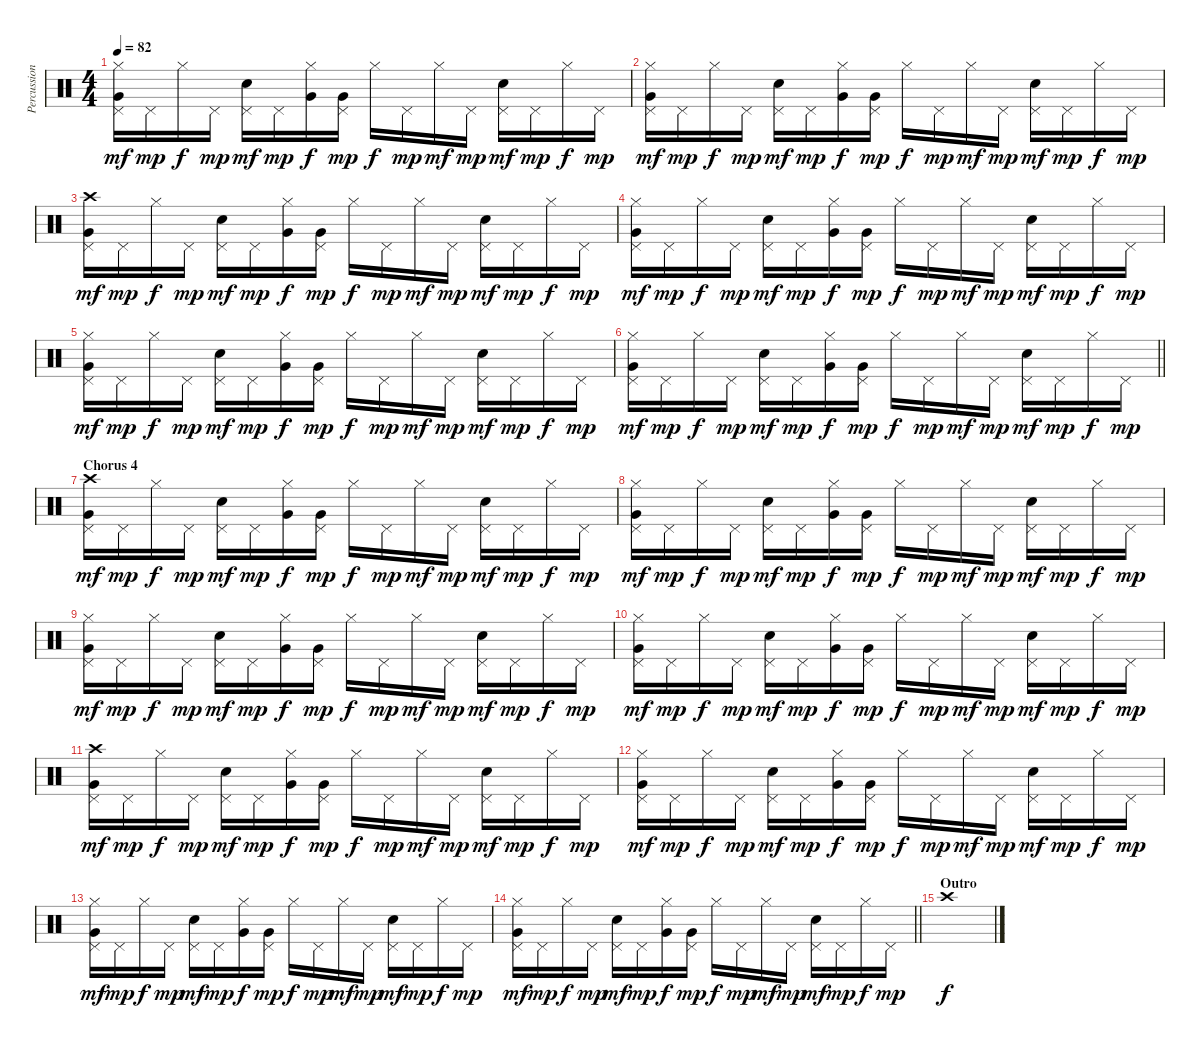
\track ("Percussion" "Percussion") {instrument percussion}
\staff {score}
\articulation defaults
\ts (4 4)
\tempo 82
\clef neutral
\ks c
("Hi-Hat (closed)" "Very Low Tom (hit)" "Pedal Hi-Hat (hit)").16{dy mf} "Pedal Hi-Hat (hit)".16{dy mp} "Hi-Hat (closed)".16{dy f} "Pedal Hi-Hat (hit)".16{dy mp} ("Electric Snare (hit)" "Pedal Hi-Hat (hit)").16{dy mf} "Pedal Hi-Hat (hit)".16{dy mp} ("Hi-Hat (closed)" "Very Low Tom (hit)").16{dy f} ("Very Low Tom (hit)" "Pedal Hi-Hat (hit)").16{dy mp} "Hi-Hat (closed)".16{dy f} "Pedal Hi-Hat (hit)".16{dy mp} "Hi-Hat (closed)".16{dy mf} "Pedal Hi-Hat (hit)".16{dy mp} ("Electric Snare (hit)" "Pedal Hi-Hat (hit)").16{dy mf} "Pedal Hi-Hat (hit)".16{dy mp} "Hi-Hat (closed)".16{dy f} "Pedal Hi-Hat (hit)".16{dy mp} |
("Hi-Hat (closed)" "Very Low Tom (hit)" "Pedal Hi-Hat (hit)").16{dy mf} "Pedal Hi-Hat (hit)".16{dy mp} "Hi-Hat (closed)".16{dy f} "Pedal Hi-Hat (hit)".16{dy mp} ("Electric Snare (hit)" "Pedal Hi-Hat (hit)").16{dy mf} "Pedal Hi-Hat (hit)".16{dy mp} ("Hi-Hat (closed)" "Very Low Tom (hit)").16{dy f} ("Very Low Tom (hit)" "Pedal Hi-Hat (hit)").16{dy mp} "Hi-Hat (closed)".16{dy f} "Pedal Hi-Hat (hit)".16{dy mp} "Hi-Hat (closed)".16{dy mf} "Pedal Hi-Hat (hit)".16{dy mp} ("Electric Snare (hit)" "Pedal Hi-Hat (hit)").16{dy mf} "Pedal Hi-Hat (hit)".16{dy mp} "Hi-Hat (closed)".16{dy f} "Pedal Hi-Hat (hit)".16{dy mp} |
("Crash high (hit)" "Very Low Tom (hit)" "Pedal Hi-Hat (hit)").16{dy mf} "Pedal Hi-Hat (hit)".16{dy mp} "Hi-Hat (closed)".16{dy f} "Pedal Hi-Hat (hit)".16{dy mp} ("Electric Snare (hit)" "Pedal Hi-Hat (hit)").16{dy mf} "Pedal Hi-Hat (hit)".16{dy mp} ("Hi-Hat (closed)" "Very Low Tom (hit)").16{dy f} ("Very Low Tom (hit)" "Pedal Hi-Hat (hit)").16{dy mp} "Hi-Hat (closed)".16{dy f} "Pedal Hi-Hat (hit)".16{dy mp} "Hi-Hat (closed)".16{dy mf} "Pedal Hi-Hat (hit)".16{dy mp} ("Electric Snare (hit)" "Pedal Hi-Hat (hit)").16{dy mf} "Pedal Hi-Hat (hit)".16{dy mp} "Hi-Hat (closed)".16{dy f} "Pedal Hi-Hat (hit)".16{dy mp} |
("Hi-Hat (closed)" "Very Low Tom (hit)" "Pedal Hi-Hat (hit)").16{dy mf} "Pedal Hi-Hat (hit)".16{dy mp} "Hi-Hat (closed)".16{dy f} "Pedal Hi-Hat (hit)".16{dy mp} ("Electric Snare (hit)" "Pedal Hi-Hat (hit)").16{dy mf} "Pedal Hi-Hat (hit)".16{dy mp} ("Hi-Hat (closed)" "Very Low Tom (hit)").16{dy f} ("Very Low Tom (hit)" "Pedal Hi-Hat (hit)").16{dy mp} "Hi-Hat (closed)".16{dy f} "Pedal Hi-Hat (hit)".16{dy mp} "Hi-Hat (closed)".16{dy mf} "Pedal Hi-Hat (hit)".16{dy mp} ("Electric Snare (hit)" "Pedal Hi-Hat (hit)").16{dy mf} "Pedal Hi-Hat (hit)".16{dy mp} "Hi-Hat (closed)".16{dy f} "Pedal Hi-Hat (hit)".16{dy mp} |
("Hi-Hat (closed)" "Very Low Tom (hit)" "Pedal Hi-Hat (hit)").16{dy mf} "Pedal Hi-Hat (hit)".16{dy mp} "Hi-Hat (closed)".16{dy f} "Pedal Hi-Hat (hit)".16{dy mp} ("Electric Snare (hit)" "Pedal Hi-Hat (hit)").16{dy mf} "Pedal Hi-Hat (hit)".16{dy mp} ("Hi-Hat (closed)" "Very Low Tom (hit)").16{dy f} ("Very Low Tom (hit)" "Pedal Hi-Hat (hit)").16{dy mp} "Hi-Hat (closed)".16{dy f} "Pedal Hi-Hat (hit)".16{dy mp} "Hi-Hat (closed)".16{dy mf} "Pedal Hi-Hat (hit)".16{dy mp} ("Electric Snare (hit)" "Pedal Hi-Hat (hit)").16{dy mf} "Pedal Hi-Hat (hit)".16{dy mp} "Hi-Hat (closed)".16{dy f} "Pedal Hi-Hat (hit)".16{dy mp} |
\barLineRight lightlight
("Hi-Hat (closed)" "Very Low Tom (hit)" "Pedal Hi-Hat (hit)").16{dy mf} "Pedal Hi-Hat (hit)".16{dy mp} "Hi-Hat (closed)".16{dy f} "Pedal Hi-Hat (hit)".16{dy mp} ("Electric Snare (hit)" "Pedal Hi-Hat (hit)").16{dy mf} "Pedal Hi-Hat (hit)".16{dy mp} ("Hi-Hat (closed)" "Very Low Tom (hit)").16{dy f} ("Very Low Tom (hit)" "Pedal Hi-Hat (hit)").16{dy mp} "Hi-Hat (closed)".16{dy f} "Pedal Hi-Hat (hit)".16{dy mp} "Hi-Hat (closed)".16{dy mf} "Pedal Hi-Hat (hit)".16{dy mp} ("Electric Snare (hit)" "Pedal Hi-Hat (hit)").16{dy mf} "Pedal Hi-Hat (hit)".16{dy mp} "Hi-Hat (closed)".16{dy f} "Pedal Hi-Hat (hit)".16{dy mp} |
\section ("" "Chorus 4")
("Crash high (hit)" "Very Low Tom (hit)" "Pedal Hi-Hat (hit)").16{dy mf} "Pedal Hi-Hat (hit)".16{dy mp} "Hi-Hat (closed)".16{dy f} "Pedal Hi-Hat (hit)".16{dy mp} ("Electric Snare (hit)" "Pedal Hi-Hat (hit)").16{dy mf} "Pedal Hi-Hat (hit)".16{dy mp} ("Hi-Hat (closed)" "Very Low Tom (hit)").16{dy f} ("Very Low Tom (hit)" "Pedal Hi-Hat (hit)").16{dy mp} "Hi-Hat (closed)".16{dy f} "Pedal Hi-Hat (hit)".16{dy mp} "Hi-Hat (closed)".16{dy mf} "Pedal Hi-Hat (hit)".16{dy mp} ("Electric Snare (hit)" "Pedal Hi-Hat (hit)").16{dy mf} "Pedal Hi-Hat (hit)".16{dy mp} "Hi-Hat (closed)".16{dy f} "Pedal Hi-Hat (hit)".16{dy mp} |
("Hi-Hat (closed)" "Very Low Tom (hit)" "Pedal Hi-Hat (hit)").16{dy mf} "Pedal Hi-Hat (hit)".16{dy mp} "Hi-Hat (closed)".16{dy f} "Pedal Hi-Hat (hit)".16{dy mp} ("Electric Snare (hit)" "Pedal Hi-Hat (hit)").16{dy mf} "Pedal Hi-Hat (hit)".16{dy mp} ("Hi-Hat (closed)" "Very Low Tom (hit)").16{dy f} ("Very Low Tom (hit)" "Pedal Hi-Hat (hit)").16{dy mp} "Hi-Hat (closed)".16{dy f} "Pedal Hi-Hat (hit)".16{dy mp} "Hi-Hat (closed)".16{dy mf} "Pedal Hi-Hat (hit)".16{dy mp} ("Electric Snare (hit)" "Pedal Hi-Hat (hit)").16{dy mf} "Pedal Hi-Hat (hit)".16{dy mp} "Hi-Hat (closed)".16{dy f} "Pedal Hi-Hat (hit)".16{dy mp} |
("Hi-Hat (closed)" "Very Low Tom (hit)" "Pedal Hi-Hat (hit)").16{dy mf} "Pedal Hi-Hat (hit)".16{dy mp} "Hi-Hat (closed)".16{dy f} "Pedal Hi-Hat (hit)".16{dy mp} ("Electric Snare (hit)" "Pedal Hi-Hat (hit)").16{dy mf} "Pedal Hi-Hat (hit)".16{dy mp} ("Hi-Hat (closed)" "Very Low Tom (hit)").16{dy f} ("Very Low Tom (hit)" "Pedal Hi-Hat (hit)").16{dy mp} "Hi-Hat (closed)".16{dy f} "Pedal Hi-Hat (hit)".16{dy mp} "Hi-Hat (closed)".16{dy mf} "Pedal Hi-Hat (hit)".16{dy mp} ("Electric Snare (hit)" "Pedal Hi-Hat (hit)").16{dy mf} "Pedal Hi-Hat (hit)".16{dy mp} "Hi-Hat (closed)".16{dy f} "Pedal Hi-Hat (hit)".16{dy mp} |
("Hi-Hat (closed)" "Very Low Tom (hit)" "Pedal Hi-Hat (hit)").16{dy mf} "Pedal Hi-Hat (hit)".16{dy mp} "Hi-Hat (closed)".16{dy f} "Pedal Hi-Hat (hit)".16{dy mp} ("Electric Snare (hit)" "Pedal Hi-Hat (hit)").16{dy mf} "Pedal Hi-Hat (hit)".16{dy mp} ("Hi-Hat (closed)" "Very Low Tom (hit)").16{dy f} ("Very Low Tom (hit)" "Pedal Hi-Hat (hit)").16{dy mp} "Hi-Hat (closed)".16{dy f} "Pedal Hi-Hat (hit)".16{dy mp} "Hi-Hat (closed)".16{dy mf} "Pedal Hi-Hat (hit)".16{dy mp} ("Electric Snare (hit)" "Pedal Hi-Hat (hit)").16{dy mf} "Pedal Hi-Hat (hit)".16{dy mp} "Hi-Hat (closed)".16{dy f} "Pedal Hi-Hat (hit)".16{dy mp} |
("Crash high (hit)" "Very Low Tom (hit)" "Pedal Hi-Hat (hit)").16{dy mf} "Pedal Hi-Hat (hit)".16{dy mp} "Hi-Hat (closed)".16{dy f} "Pedal Hi-Hat (hit)".16{dy mp} ("Electric Snare (hit)" "Pedal Hi-Hat (hit)").16{dy mf} "Pedal Hi-Hat (hit)".16{dy mp} ("Hi-Hat (closed)" "Very Low Tom (hit)").16{dy f} ("Very Low Tom (hit)" "Pedal Hi-Hat (hit)").16{dy mp} "Hi-Hat (closed)".16{dy f} "Pedal Hi-Hat (hit)".16{dy mp} "Hi-Hat (closed)".16{dy mf} "Pedal Hi-Hat (hit)".16{dy mp} ("Electric Snare (hit)" "Pedal Hi-Hat (hit)").16{dy mf} "Pedal Hi-Hat (hit)".16{dy mp} "Hi-Hat (closed)".16{dy f} "Pedal Hi-Hat (hit)".16{dy mp} |
("Hi-Hat (closed)" "Very Low Tom (hit)" "Pedal Hi-Hat (hit)").16{dy mf} "Pedal Hi-Hat (hit)".16{dy mp} "Hi-Hat (closed)".16{dy f} "Pedal Hi-Hat (hit)".16{dy mp} ("Electric Snare (hit)" "Pedal Hi-Hat (hit)").16{dy mf} "Pedal Hi-Hat (hit)".16{dy mp} ("Hi-Hat (closed)" "Very Low Tom (hit)").16{dy f} ("Very Low Tom (hit)" "Pedal Hi-Hat (hit)").16{dy mp} "Hi-Hat (closed)".16{dy f} "Pedal Hi-Hat (hit)".16{dy mp} "Hi-Hat (closed)".16{dy mf} "Pedal Hi-Hat (hit)".16{dy mp} ("Electric Snare (hit)" "Pedal Hi-Hat (hit)").16{dy mf} "Pedal Hi-Hat (hit)".16{dy mp} "Hi-Hat (closed)".16{dy f} "Pedal Hi-Hat (hit)".16{dy mp} |
("Hi-Hat (closed)" "Very Low Tom (hit)" "Pedal Hi-Hat (hit)").16{dy mf} "Pedal Hi-Hat (hit)".16{dy mp} "Hi-Hat (closed)".16{dy f} "Pedal Hi-Hat (hit)".16{dy mp} ("Electric Snare (hit)" "Pedal Hi-Hat (hit)").16{dy mf} "Pedal Hi-Hat (hit)".16{dy mp} ("Hi-Hat (closed)" "Very Low Tom (hit)").16{dy f} ("Very Low Tom (hit)" "Pedal Hi-Hat (hit)").16{dy mp} "Hi-Hat (closed)".16{dy f} "Pedal Hi-Hat (hit)".16{dy mp} "Hi-Hat (closed)".16{dy mf} "Pedal Hi-Hat (hit)".16{dy mp} ("Electric Snare (hit)" "Pedal Hi-Hat (hit)").16{dy mf} "Pedal Hi-Hat (hit)".16{dy mp} "Hi-Hat (closed)".16{dy f} "Pedal Hi-Hat (hit)".16{dy mp} |
\barLineRight lightlight
("Hi-Hat (closed)" "Very Low Tom (hit)" "Pedal Hi-Hat (hit)").16{dy mf} "Pedal Hi-Hat (hit)".16{dy mp} "Hi-Hat (closed)".16{dy f} "Pedal Hi-Hat (hit)".16{dy mp} ("Electric Snare (hit)" "Pedal Hi-Hat (hit)").16{dy mf} "Pedal Hi-Hat (hit)".16{dy mp} ("Hi-Hat (closed)" "Very Low Tom (hit)").16{dy f} ("Very Low Tom (hit)" "Pedal Hi-Hat (hit)").16{dy mp} "Hi-Hat (closed)".16{dy f} "Pedal Hi-Hat (hit)".16{dy mp} "Hi-Hat (closed)".16{dy mf} "Pedal Hi-Hat (hit)".16{dy mp} ("Electric Snare (hit)" "Pedal Hi-Hat (hit)").16{dy mf} "Pedal Hi-Hat (hit)".16{dy mp} "Hi-Hat (closed)".16{dy f} "Pedal Hi-Hat (hit)".16{dy mp} |
\section ("" "Outro")
"Crash high (hit)".1{dy f}
